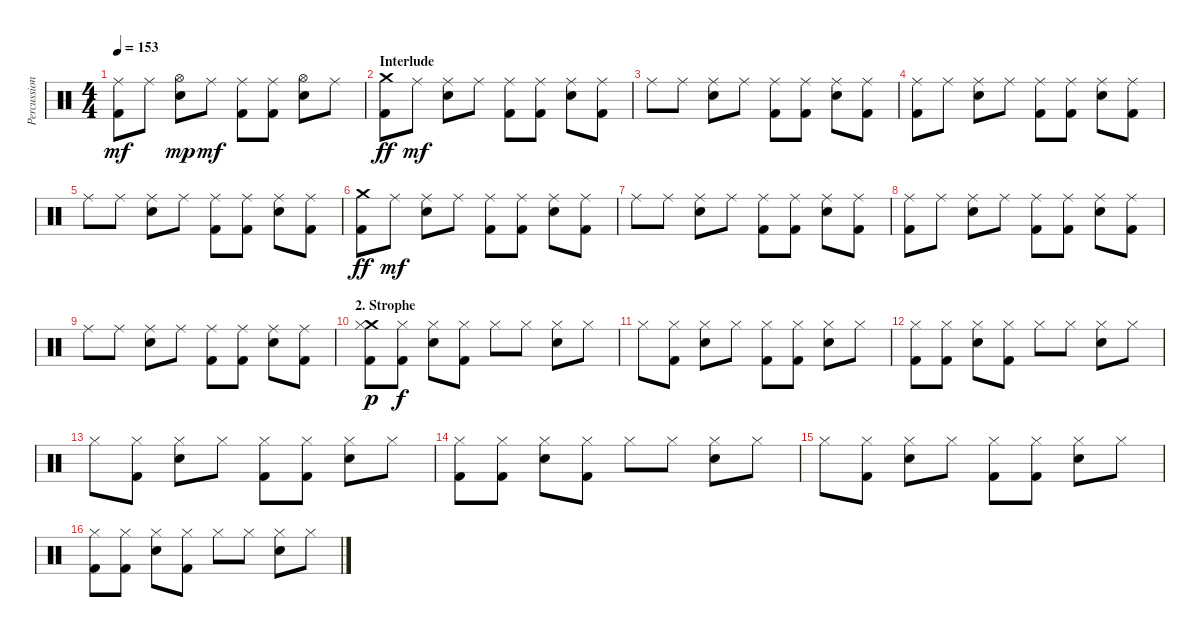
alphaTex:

\track ("Percussion" "Percussion") {instrument percussion}
\staff {score}
\articulation defaults
\ts (4 4)
\tempo 153
\clef neutral
\ks c
("Ride (middle)" "Kick (hit) 2").8{dy mf} "Ride (middle)".8 ("Hi-Hat (open)" "Electric Snare (hit)").8{dy mp} "Ride (middle)".8{dy mf} ("Ride (middle)" "Kick (hit) 2").8 ("Ride (middle)" "Kick (hit) 2").8 ("Hi-Hat (open)" "Electric Snare (hit)").8 "Ride (middle)".8 |
\section ("" "Interlude")
("Crash medium (hit)" "Kick (hit) 2").8{dy ff} "Ride (middle)".8{dy mf} ("Ride (middle)" "Electric Snare (hit)").8 "Ride (middle)".8 ("Ride (middle)" "Kick (hit) 2").8 ("Ride (middle)" "Kick (hit) 2").8 ("Ride (middle)" "Electric Snare (hit)").8 ("Ride (middle)" "Kick (hit) 2").8 |
"Ride (middle)".8 "Ride (middle)".8 ("Ride (middle)" "Electric Snare (hit)").8 "Ride (middle)".8 ("Ride (middle)" "Kick (hit) 2").8 ("Ride (middle)" "Kick (hit) 2").8 ("Ride (middle)" "Electric Snare (hit)").8 ("Ride (middle)" "Kick (hit) 2").8 |
("Ride (middle)" "Kick (hit) 2").8 "Ride (middle)".8 ("Ride (middle)" "Electric Snare (hit)").8 "Ride (middle)".8 ("Ride (middle)" "Kick (hit) 2").8 ("Ride (middle)" "Kick (hit) 2").8 ("Ride (middle)" "Electric Snare (hit)").8 ("Ride (middle)" "Kick (hit) 2").8 |
"Ride (middle)".8 "Ride (middle)".8 ("Ride (middle)" "Electric Snare (hit)").8 "Ride (middle)".8 ("Ride (middle)" "Kick (hit) 2").8 ("Ride (middle)" "Kick (hit) 2").8 ("Ride (middle)" "Electric Snare (hit)").8 ("Ride (middle)" "Kick (hit) 2").8 |
("Crash medium (hit)" "Kick (hit) 2").8{dy ff} "Ride (middle)".8{dy mf} ("Ride (middle)" "Electric Snare (hit)").8 "Ride (middle)".8 ("Ride (middle)" "Kick (hit) 2").8 ("Ride (middle)" "Kick (hit) 2").8 ("Ride (middle)" "Electric Snare (hit)").8 ("Ride (middle)" "Kick (hit) 2").8 |
"Ride (middle)".8 "Ride (middle)".8 ("Ride (middle)" "Electric Snare (hit)").8 "Ride (middle)".8 ("Ride (middle)" "Kick (hit) 2").8 ("Ride (middle)" "Kick (hit) 2").8 ("Ride (middle)" "Electric Snare (hit)").8 ("Ride (middle)" "Kick (hit) 2").8 |
("Ride (middle)" "Kick (hit) 2").8 "Ride (middle)".8 ("Ride (middle)" "Electric Snare (hit)").8 "Ride (middle)".8 ("Ride (middle)" "Kick (hit) 2").8 ("Ride (middle)" "Kick (hit) 2").8 ("Ride (middle)" "Electric Snare (hit)").8 ("Ride (middle)" "Kick (hit) 2").8 |
"Ride (middle)".8 "Ride (middle)".8 ("Ride (middle)" "Electric Snare (hit)").8 "Ride (middle)".8 ("Ride (middle)" "Kick (hit) 2").8 ("Ride (middle)" "Kick (hit) 2").8 ("Ride (middle)" "Electric Snare (hit)").8 ("Ride (middle)" "Kick (hit) 2").8 |
\section ("" "2. Strophe")
("Crash medium (hit)" "Hi-Hat (closed)" "Kick (hit) 2").8{dy p} ("Hi-Hat (closed)" "Kick (hit) 2").8{dy f} ("Hi-Hat (closed)" "Electric Snare (hit)").8 ("Hi-Hat (closed)" "Kick (hit) 2").8 "Hi-Hat (closed)".8 "Hi-Hat (closed)".8 ("Hi-Hat (closed)" "Electric Snare (hit)").8 "Hi-Hat (closed)".8 |
"Hi-Hat (closed)".8 ("Hi-Hat (closed)" "Kick (hit) 2").8 ("Hi-Hat (closed)" "Electric Snare (hit)").8 "Hi-Hat (closed)".8 ("Hi-Hat (closed)" "Kick (hit) 2").8 ("Hi-Hat (closed)" "Kick (hit) 2").8 ("Hi-Hat (closed)" "Electric Snare (hit)").8 "Hi-Hat (closed)".8 |
("Hi-Hat (closed)" "Kick (hit) 2").8 ("Hi-Hat (closed)" "Kick (hit) 2").8 ("Hi-Hat (closed)" "Electric Snare (hit)").8 ("Hi-Hat (closed)" "Kick (hit) 2").8 "Hi-Hat (closed)".8 "Hi-Hat (closed)".8 ("Hi-Hat (closed)" "Electric Snare (hit)").8 "Hi-Hat (closed)".8 |
"Hi-Hat (closed)".8 ("Hi-Hat (closed)" "Kick (hit) 2").8 ("Hi-Hat (closed)" "Electric Snare (hit)").8 "Hi-Hat (closed)".8 ("Hi-Hat (closed)" "Kick (hit) 2").8 ("Hi-Hat (closed)" "Kick (hit) 2").8 ("Hi-Hat (closed)" "Electric Snare (hit)").8 "Hi-Hat (closed)".8 |
("Hi-Hat (closed)" "Kick (hit) 2").8 ("Hi-Hat (closed)" "Kick (hit) 2").8 ("Hi-Hat (closed)" "Electric Snare (hit)").8 ("Hi-Hat (closed)" "Kick (hit) 2").8 "Hi-Hat (closed)".8 "Hi-Hat (closed)".8 ("Hi-Hat (closed)" "Electric Snare (hit)").8 "Hi-Hat (closed)".8 |
"Hi-Hat (closed)".8 ("Hi-Hat (closed)" "Kick (hit) 2").8 ("Hi-Hat (closed)" "Electric Snare (hit)").8 "Hi-Hat (closed)".8 ("Hi-Hat (closed)" "Kick (hit) 2").8 ("Hi-Hat (closed)" "Kick (hit) 2").8 ("Hi-Hat (closed)" "Electric Snare (hit)").8 "Hi-Hat (closed)".8 |
("Hi-Hat (closed)" "Kick (hit) 2").8 ("Hi-Hat (closed)" "Kick (hit) 2").8 ("Hi-Hat (closed)" "Electric Snare (hit)").8 ("Hi-Hat (closed)" "Kick (hit) 2").8 "Hi-Hat (closed)".8 "Hi-Hat (closed)".8 ("Hi-Hat (closed)" "Electric Snare (hit)").8 "Hi-Hat (closed)".8
